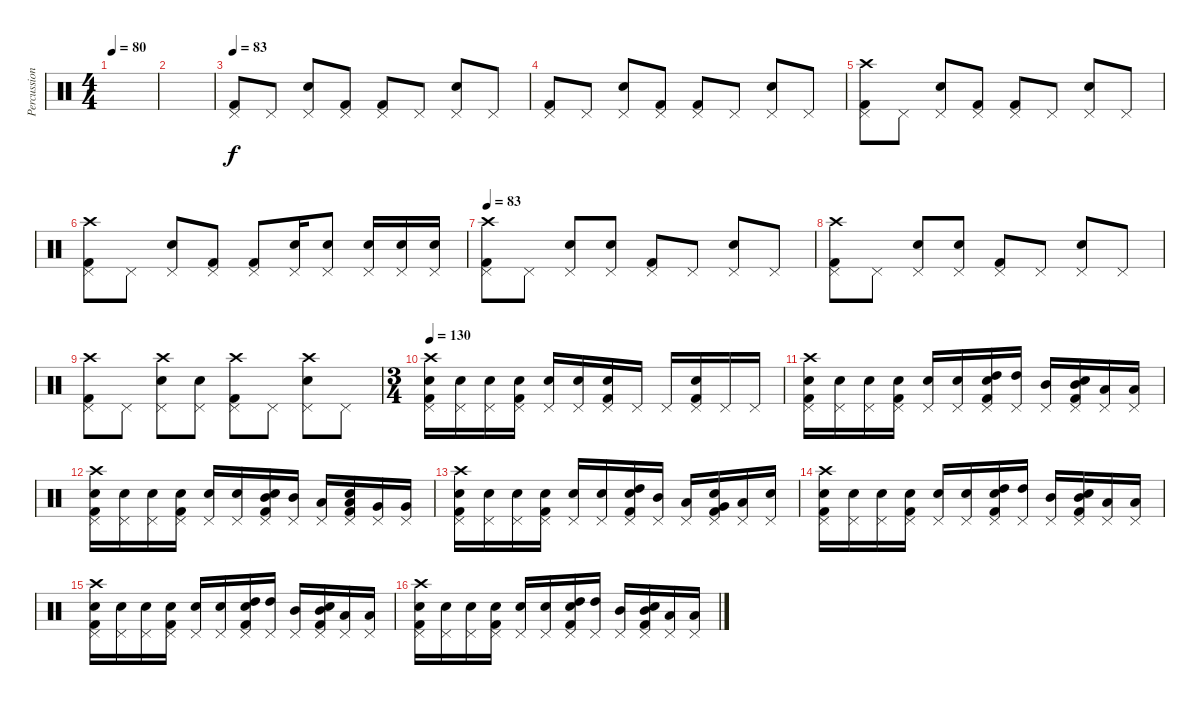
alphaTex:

\track ("Percussion" "Percussion") {instrument percussion}
\staff {score}
\articulation defaults
\ts (4 4)
\tempo 80
\clef neutral
\ks c
|
|
\tempo 83
("Kick (hit) 2" "Pedal Hi-Hat (hit)").8 "Pedal Hi-Hat (hit)".8 ("Pedal Hi-Hat (hit)" "Electric Snare (hit)").8 ("Kick (hit) 2" "Pedal Hi-Hat (hit)").8 ("Kick (hit) 2" "Pedal Hi-Hat (hit)").8 "Pedal Hi-Hat (hit)".8 ("Pedal Hi-Hat (hit)" "Electric Snare (hit)").8 "Pedal Hi-Hat (hit)".8 |
("Kick (hit) 2" "Pedal Hi-Hat (hit)").8 "Pedal Hi-Hat (hit)".8 ("Pedal Hi-Hat (hit)" "Electric Snare (hit)").8 ("Kick (hit) 2" "Pedal Hi-Hat (hit)").8 ("Kick (hit) 2" "Pedal Hi-Hat (hit)").8 "Pedal Hi-Hat (hit)".8 ("Pedal Hi-Hat (hit)" "Electric Snare (hit)").8 "Pedal Hi-Hat (hit)".8 |
("Kick (hit) 2" "Pedal Hi-Hat (hit)" "Crash high (hit)").8 "Pedal Hi-Hat (hit)".8 ("Pedal Hi-Hat (hit)" "Electric Snare (hit)").8 ("Kick (hit) 2" "Pedal Hi-Hat (hit)").8 ("Kick (hit) 2" "Pedal Hi-Hat (hit)").8 "Pedal Hi-Hat (hit)".8 ("Pedal Hi-Hat (hit)" "Electric Snare (hit)").8 "Pedal Hi-Hat (hit)".8 |
("Kick (hit) 2" "Pedal Hi-Hat (hit)" "Crash high (hit)").8 "Pedal Hi-Hat (hit)".8 ("Pedal Hi-Hat (hit)" "Electric Snare (hit)").8 ("Kick (hit) 2" "Pedal Hi-Hat (hit)").8 ("Kick (hit) 2" "Pedal Hi-Hat (hit)").8 ("Pedal Hi-Hat (hit)" "Electric Snare (hit)").16 ("Pedal Hi-Hat (hit)" "Electric Snare (hit)").8 ("Pedal Hi-Hat (hit)" "Electric Snare (hit)").16 ("Pedal Hi-Hat (hit)" "Electric Snare (hit)").16 ("Pedal Hi-Hat (hit)" "Electric Snare (hit)").16 |
\tempo 83
("Kick (hit) 2" "Pedal Hi-Hat (hit)" "Crash high (hit)").8 "Pedal Hi-Hat (hit)".8 ("Pedal Hi-Hat (hit)" "Electric Snare (hit)").8 ("Pedal Hi-Hat (hit)" "Electric Snare (hit)").8 ("Kick (hit) 2" "Pedal Hi-Hat (hit)").8 "Pedal Hi-Hat (hit)".8 ("Pedal Hi-Hat (hit)" "Electric Snare (hit)").8 "Pedal Hi-Hat (hit)".8 |
("Kick (hit) 2" "Pedal Hi-Hat (hit)" "Crash high (hit)").8 "Pedal Hi-Hat (hit)".8 ("Pedal Hi-Hat (hit)" "Electric Snare (hit)").8 ("Pedal Hi-Hat (hit)" "Electric Snare (hit)").8 ("Kick (hit) 2" "Pedal Hi-Hat (hit)").8 "Pedal Hi-Hat (hit)".8 ("Pedal Hi-Hat (hit)" "Electric Snare (hit)").8 "Pedal Hi-Hat (hit)".8 |
("Kick (hit) 2" "Pedal Hi-Hat (hit)" "Crash high (hit)").8 "Pedal Hi-Hat (hit)".8 ("Pedal Hi-Hat (hit)" "Electric Snare (hit)" "Crash high (hit)").8 ("Pedal Hi-Hat (hit)" "Electric Snare (hit)").8 ("Kick (hit) 2" "Pedal Hi-Hat (hit)" "Crash high (hit)").8 "Pedal Hi-Hat (hit)".8 ("Pedal Hi-Hat (hit)" "Electric Snare (hit)" "Crash high (hit)").8 "Pedal Hi-Hat (hit)".8 |
\ts (3 4)
\tempo 130
("Kick (hit) 2" "Pedal Hi-Hat (hit)" "Electric Snare (hit)" "Crash high (hit)").16 ("Pedal Hi-Hat (hit)" "Electric Snare (hit)").16 ("Pedal Hi-Hat (hit)" "Electric Snare (hit)").16 ("Kick (hit) 2" "Pedal Hi-Hat (hit)" "Electric Snare (hit)").16 ("Pedal Hi-Hat (hit)" "Electric Snare (hit)").16 ("Pedal Hi-Hat (hit)" "Electric Snare (hit)").16 ("Kick (hit) 2" "Pedal Hi-Hat (hit)" "Electric Snare (hit)").16 "Pedal Hi-Hat (hit)".16 "Pedal Hi-Hat (hit)".16 ("Kick (hit) 2" "Pedal Hi-Hat (hit)" "Electric Snare (hit)").16 "Pedal Hi-Hat (hit)".16 "Pedal Hi-Hat (hit)".16 |
("Kick (hit) 2" "Pedal Hi-Hat (hit)" "Electric Snare (hit)" "Crash high (hit)").16 ("Pedal Hi-Hat (hit)" "Electric Snare (hit)").16 ("Pedal Hi-Hat (hit)" "Electric Snare (hit)").16 ("Kick (hit) 2" "Pedal Hi-Hat (hit)" "Electric Snare (hit)").16 ("Pedal Hi-Hat (hit)" "Electric Snare (hit)").16 ("Pedal Hi-Hat (hit)" "Electric Snare (hit)").16 ("Kick (hit) 2" "Pedal Hi-Hat (hit)" "Electric Snare (hit)" "High Tom (hit)").16 ("Pedal Hi-Hat (hit)" "High Tom (hit)").16 ("Pedal Hi-Hat (hit)" "Mid Tom (hit)").16 ("Kick (hit) 2" "Pedal Hi-Hat (hit)" "Electric Snare (hit)" "Mid Tom (hit)").16 ("Pedal Hi-Hat (hit)" "Low Tom (hit)").16 ("Pedal Hi-Hat (hit)" "Low Tom (hit)").16 |
("Kick (hit) 2" "Pedal Hi-Hat (hit)" "Electric Snare (hit)" "Crash high (hit)").16 ("Pedal Hi-Hat (hit)" "Electric Snare (hit)").16 ("Pedal Hi-Hat (hit)" "Electric Snare (hit)").16 ("Kick (hit) 2" "Pedal Hi-Hat (hit)" "Electric Snare (hit)").16 ("Pedal Hi-Hat (hit)" "Electric Snare (hit)").16 ("Pedal Hi-Hat (hit)" "Electric Snare (hit)").16 ("Kick (hit) 2" "Pedal Hi-Hat (hit)" "Electric Snare (hit)" "Mid Tom (hit)").16 ("Pedal Hi-Hat (hit)" "Mid Tom (hit)").16 ("Pedal Hi-Hat (hit)" "Low Tom (hit)").16 ("Kick (hit) 2" "Pedal Hi-Hat (hit)" "Electric Snare (hit)" "Low Tom (hit)").16 ("Pedal Hi-Hat (hit)" "Very Low Tom (hit)").16 ("Pedal Hi-Hat (hit)" "Very Low Tom (hit)").16 |
("Kick (hit) 2" "Pedal Hi-Hat (hit)" "Electric Snare (hit)" "Crash high (hit)").16 ("Pedal Hi-Hat (hit)" "Electric Snare (hit)").16 ("Pedal Hi-Hat (hit)" "Electric Snare (hit)").16 ("Kick (hit) 2" "Pedal Hi-Hat (hit)" "Electric Snare (hit)").16 ("Pedal Hi-Hat (hit)" "Electric Snare (hit)").16 ("Pedal Hi-Hat (hit)" "Electric Snare (hit)").16 ("Kick (hit) 2" "Pedal Hi-Hat (hit)" "Electric Snare (hit)" "High Tom (hit)").16 ("Pedal Hi-Hat (hit)" "Mid Tom (hit)").16 ("Pedal Hi-Hat (hit)" "Low Tom (hit)").16 ("Kick (hit) 2" "Pedal Hi-Hat (hit)" "Electric Snare (hit)" "Very Low Tom (hit)").16 ("Pedal Hi-Hat (hit)" "Low Floor Tom (hit)").16 ("Pedal Hi-Hat (hit)" "Electric Snare (hit)").16 |
("Kick (hit) 2" "Pedal Hi-Hat (hit)" "Electric Snare (hit)" "Crash high (hit)").16 ("Pedal Hi-Hat (hit)" "Electric Snare (hit)").16 ("Pedal Hi-Hat (hit)" "Electric Snare (hit)").16 ("Kick (hit) 2" "Pedal Hi-Hat (hit)" "Electric Snare (hit)").16 ("Pedal Hi-Hat (hit)" "Electric Snare (hit)").16 ("Pedal Hi-Hat (hit)" "Electric Snare (hit)").16 ("Kick (hit) 2" "Pedal Hi-Hat (hit)" "Electric Snare (hit)" "High Tom (hit)").16 ("Pedal Hi-Hat (hit)" "High Tom (hit)").16 ("Pedal Hi-Hat (hit)" "Mid Tom (hit)").16 ("Kick (hit) 2" "Pedal Hi-Hat (hit)" "Electric Snare (hit)" "Mid Tom (hit)").16 ("Pedal Hi-Hat (hit)" "Low Tom (hit)").16 ("Pedal Hi-Hat (hit)" "Low Tom (hit)").16 |
("Kick (hit) 2" "Pedal Hi-Hat (hit)" "Electric Snare (hit)" "Crash high (hit)").16 ("Pedal Hi-Hat (hit)" "Electric Snare (hit)").16 ("Pedal Hi-Hat (hit)" "Electric Snare (hit)").16 ("Kick (hit) 2" "Pedal Hi-Hat (hit)" "Electric Snare (hit)").16 ("Pedal Hi-Hat (hit)" "Electric Snare (hit)").16 ("Pedal Hi-Hat (hit)" "Electric Snare (hit)").16 ("Kick (hit) 2" "Pedal Hi-Hat (hit)" "Electric Snare (hit)" "High Tom (hit)").16 ("Pedal Hi-Hat (hit)" "High Tom (hit)").16 ("Pedal Hi-Hat (hit)" "Mid Tom (hit)").16 ("Kick (hit) 2" "Pedal Hi-Hat (hit)" "Electric Snare (hit)" "Mid Tom (hit)").16 ("Pedal Hi-Hat (hit)" "Low Tom (hit)").16 ("Pedal Hi-Hat (hit)" "Low Tom (hit)").16 |
("Kick (hit) 2" "Pedal Hi-Hat (hit)" "Electric Snare (hit)" "Crash high (hit)").16 ("Pedal Hi-Hat (hit)" "Electric Snare (hit)").16 ("Pedal Hi-Hat (hit)" "Electric Snare (hit)").16 ("Kick (hit) 2" "Pedal Hi-Hat (hit)" "Electric Snare (hit)").16 ("Pedal Hi-Hat (hit)" "Electric Snare (hit)").16 ("Pedal Hi-Hat (hit)" "Electric Snare (hit)").16 ("Kick (hit) 2" "Pedal Hi-Hat (hit)" "Electric Snare (hit)" "High Tom (hit)").16 ("Pedal Hi-Hat (hit)" "High Tom (hit)").16 ("Pedal Hi-Hat (hit)" "Mid Tom (hit)").16 ("Kick (hit) 2" "Pedal Hi-Hat (hit)" "Electric Snare (hit)" "Mid Tom (hit)").16 ("Pedal Hi-Hat (hit)" "Low Tom (hit)").16 ("Pedal Hi-Hat (hit)" "Low Tom (hit)").16
